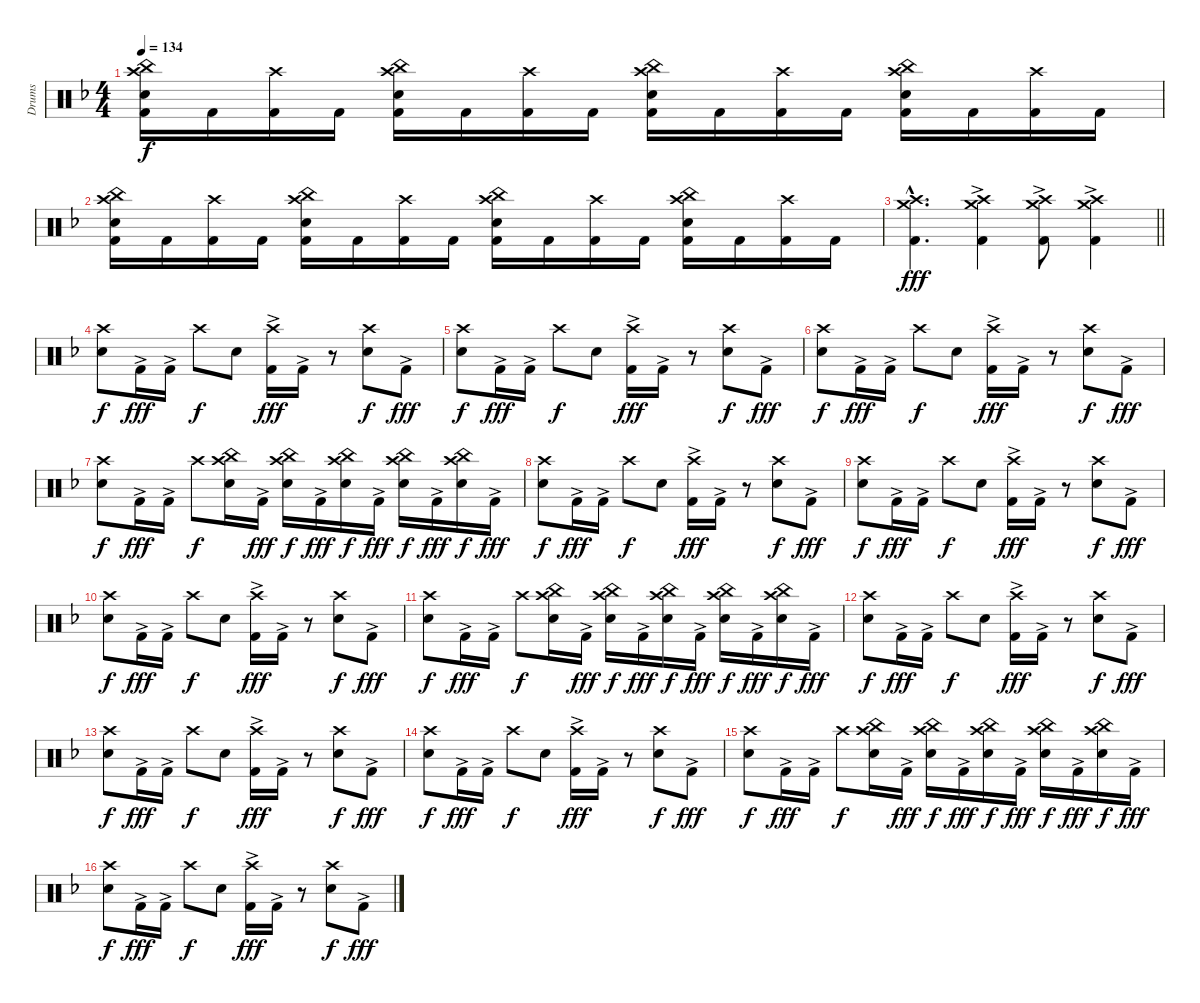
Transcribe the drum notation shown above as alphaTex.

\track ("Drums" "Drums") {instrument percussion}
\staff {score}
\articulation defaults
\ts (4 4)
\tempo 134
\clef neutral
\ks dminor
("Crash high (hit)" "China (hit)" "Snare (hit) 2" "Kick (hit) 2").16{dy f} "Kick (hit) 2".16 ("Crash high (hit)" "Kick (hit) 2").16 "Kick (hit) 2".16 ("Crash high (hit)" "China (hit)" "Snare (hit) 2" "Kick (hit) 2").16 "Kick (hit) 2".16 ("Crash high (hit)" "Kick (hit) 2").16 "Kick (hit) 2".16 ("Crash high (hit)" "China (hit)" "Snare (hit) 2" "Kick (hit) 2").16 "Kick (hit) 2".16 ("Crash high (hit)" "Kick (hit) 2").16 "Kick (hit) 2".16 ("Crash high (hit)" "China (hit)" "Snare (hit) 2" "Kick (hit) 2").16 "Kick (hit) 2".16 ("Crash high (hit)" "Kick (hit) 2").16 "Kick (hit) 2".16 |
("Crash high (hit)" "China (hit)" "Snare (hit) 2" "Kick (hit) 2").16 "Kick (hit) 2".16 ("Crash high (hit)" "Kick (hit) 2").16 "Kick (hit) 2".16 ("Crash high (hit)" "China (hit)" "Snare (hit) 2" "Kick (hit) 2").16 "Kick (hit) 2".16 ("Crash high (hit)" "Kick (hit) 2").16 "Kick (hit) 2".16 ("Crash high (hit)" "China (hit)" "Snare (hit) 2" "Kick (hit) 2").16 "Kick (hit) 2".16 ("Crash high (hit)" "Kick (hit) 2").16 "Kick (hit) 2".16 ("Crash high (hit)" "China (hit)" "Snare (hit) 2" "Kick (hit) 2").16 "Kick (hit) 2".16 ("Crash high (hit)" "Kick (hit) 2").16 "Kick (hit) 2".16 |
\barLineRight lightlight
("Crash high (hit)"{hac} "Crash medium (hit)"{hac} "Kick (hit) 2"{hac}).4{d dy fff} ("Crash high (hit)" "Crash medium (hit)" "Kick (hit) 2"{ac}).4 ("Crash high (hit)" "Crash medium (hit)" "Kick (hit) 2"{ac}).8 ("Crash high (hit)" "Crash medium (hit)" "Kick (hit) 2"{ac}).4 |
("Crash high (hit)" "Snare (hit) 2").8{dy f} "Kick (hit) 2"{ac}.16{dy fff} "Kick (hit) 2"{ac}.16 "Crash high (hit)".8{dy f} "Snare (hit) 2".8 ("Crash high (hit)" "Kick (hit) 2"{ac}).16{dy fff} "Kick (hit) 2"{ac}.16 r.8 ("Crash high (hit)" "Snare (hit) 2").8{dy f} "Kick (hit) 2"{ac}.8{dy fff} |
("Crash high (hit)" "Snare (hit) 2").8{dy f} "Kick (hit) 2"{ac}.16{dy fff} "Kick (hit) 2"{ac}.16 "Crash high (hit)".8{dy f} "Snare (hit) 2".8 ("Crash high (hit)" "Kick (hit) 2"{ac}).16{dy fff} "Kick (hit) 2"{ac}.16 r.8 ("Crash high (hit)" "Snare (hit) 2").8{dy f} "Kick (hit) 2"{ac}.8{dy fff} |
("Crash high (hit)" "Snare (hit) 2").8{dy f} "Kick (hit) 2"{ac}.16{dy fff} "Kick (hit) 2"{ac}.16 "Crash high (hit)".8{dy f} "Snare (hit) 2".8 ("Crash high (hit)" "Kick (hit) 2"{ac}).16{dy fff} "Kick (hit) 2"{ac}.16 r.8 ("Crash high (hit)" "Snare (hit) 2").8{dy f} "Kick (hit) 2"{ac}.8{dy fff} |
("Crash high (hit)" "Snare (hit) 2").8{dy f} "Kick (hit) 2"{ac}.16{dy fff} "Kick (hit) 2"{ac}.16 "Crash high (hit)".8{dy f} ("Crash high (hit)" "China (hit)" "Snare (hit) 2").16 "Kick (hit) 2"{ac}.16{dy fff} ("Crash high (hit)" "China (hit)" "Snare (hit) 2").16{dy f} "Kick (hit) 2"{ac}.16{dy fff} ("Crash high (hit)" "China (hit)" "Snare (hit) 2").16{dy f} "Kick (hit) 2"{ac}.16{dy fff} ("Crash high (hit)" "China (hit)" "Snare (hit) 2").16{dy f} "Kick (hit) 2"{ac}.16{dy fff} ("Crash high (hit)" "China (hit)" "Snare (hit) 2").16{dy f} "Kick (hit) 2"{ac}.16{dy fff} |
("Crash high (hit)" "Snare (hit) 2").8{dy f} "Kick (hit) 2"{ac}.16{dy fff} "Kick (hit) 2"{ac}.16 "Crash high (hit)".8{dy f} "Snare (hit) 2".8 ("Crash high (hit)" "Kick (hit) 2"{ac}).16{dy fff} "Kick (hit) 2"{ac}.16 r.8 ("Crash high (hit)" "Snare (hit) 2").8{dy f} "Kick (hit) 2"{ac}.8{dy fff} |
("Crash high (hit)" "Snare (hit) 2").8{dy f} "Kick (hit) 2"{ac}.16{dy fff} "Kick (hit) 2"{ac}.16 "Crash high (hit)".8{dy f} "Snare (hit) 2".8 ("Crash high (hit)" "Kick (hit) 2"{ac}).16{dy fff} "Kick (hit) 2"{ac}.16 r.8 ("Crash high (hit)" "Snare (hit) 2").8{dy f} "Kick (hit) 2"{ac}.8{dy fff} |
("Crash high (hit)" "Snare (hit) 2").8{dy f} "Kick (hit) 2"{ac}.16{dy fff} "Kick (hit) 2"{ac}.16 "Crash high (hit)".8{dy f} "Snare (hit) 2".8 ("Crash high (hit)" "Kick (hit) 2"{ac}).16{dy fff} "Kick (hit) 2"{ac}.16 r.8 ("Crash high (hit)" "Snare (hit) 2").8{dy f} "Kick (hit) 2"{ac}.8{dy fff} |
("Crash high (hit)" "Snare (hit) 2").8{dy f} "Kick (hit) 2"{ac}.16{dy fff} "Kick (hit) 2"{ac}.16 "Crash high (hit)".8{dy f} ("Crash high (hit)" "China (hit)" "Snare (hit) 2").16 "Kick (hit) 2"{ac}.16{dy fff} ("Crash high (hit)" "China (hit)" "Snare (hit) 2").16{dy f} "Kick (hit) 2"{ac}.16{dy fff} ("Crash high (hit)" "China (hit)" "Snare (hit) 2").16{dy f} "Kick (hit) 2"{ac}.16{dy fff} ("Crash high (hit)" "China (hit)" "Snare (hit) 2").16{dy f} "Kick (hit) 2"{ac}.16{dy fff} ("Crash high (hit)" "China (hit)" "Snare (hit) 2").16{dy f} "Kick (hit) 2"{ac}.16{dy fff} |
("Crash high (hit)" "Snare (hit) 2").8{dy f} "Kick (hit) 2"{ac}.16{dy fff} "Kick (hit) 2"{ac}.16 "Crash high (hit)".8{dy f} "Snare (hit) 2".8 ("Crash high (hit)" "Kick (hit) 2"{ac}).16{dy fff} "Kick (hit) 2"{ac}.16 r.8 ("Crash high (hit)" "Snare (hit) 2").8{dy f} "Kick (hit) 2"{ac}.8{dy fff} |
("Crash high (hit)" "Snare (hit) 2").8{dy f} "Kick (hit) 2"{ac}.16{dy fff} "Kick (hit) 2"{ac}.16 "Crash high (hit)".8{dy f} "Snare (hit) 2".8 ("Crash high (hit)" "Kick (hit) 2"{ac}).16{dy fff} "Kick (hit) 2"{ac}.16 r.8 ("Crash high (hit)" "Snare (hit) 2").8{dy f} "Kick (hit) 2"{ac}.8{dy fff} |
("Crash high (hit)" "Snare (hit) 2").8{dy f} "Kick (hit) 2"{ac}.16{dy fff} "Kick (hit) 2"{ac}.16 "Crash high (hit)".8{dy f} "Snare (hit) 2".8 ("Crash high (hit)" "Kick (hit) 2"{ac}).16{dy fff} "Kick (hit) 2"{ac}.16 r.8 ("Crash high (hit)" "Snare (hit) 2").8{dy f} "Kick (hit) 2"{ac}.8{dy fff} |
("Crash high (hit)" "Snare (hit) 2").8{dy f} "Kick (hit) 2"{ac}.16{dy fff} "Kick (hit) 2"{ac}.16 "Crash high (hit)".8{dy f} ("Crash high (hit)" "China (hit)" "Snare (hit) 2").16 "Kick (hit) 2"{ac}.16{dy fff} ("Crash high (hit)" "China (hit)" "Snare (hit) 2").16{dy f} "Kick (hit) 2"{ac}.16{dy fff} ("Crash high (hit)" "China (hit)" "Snare (hit) 2").16{dy f} "Kick (hit) 2"{ac}.16{dy fff} ("Crash high (hit)" "China (hit)" "Snare (hit) 2").16{dy f} "Kick (hit) 2"{ac}.16{dy fff} ("Crash high (hit)" "China (hit)" "Snare (hit) 2").16{dy f} "Kick (hit) 2"{ac}.16{dy fff} |
("Crash high (hit)" "Snare (hit) 2").8{dy f} "Kick (hit) 2"{ac}.16{dy fff} "Kick (hit) 2"{ac}.16 "Crash high (hit)".8{dy f} "Snare (hit) 2".8 ("Crash high (hit)" "Kick (hit) 2"{ac}).16{dy fff} "Kick (hit) 2"{ac}.16 r.8 ("Crash high (hit)" "Snare (hit) 2").8{dy f} "Kick (hit) 2"{ac}.8{dy fff}
